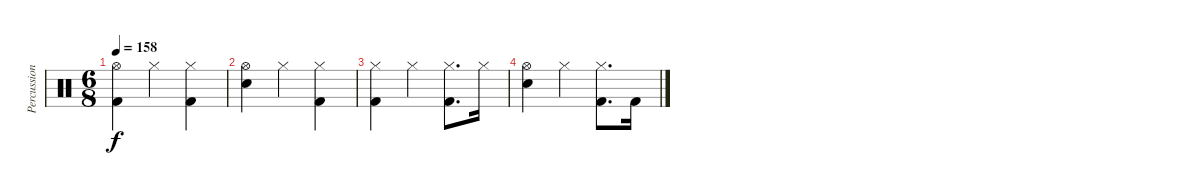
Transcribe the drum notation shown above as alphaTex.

\track ("Percussion" "Percussion") {instrument percussion}
\staff {score}
\articulation defaults
\ts (6 8)
\tempo 158
\clef neutral
\ks c
("Hi-Hat (open)" "Kick (hit) 2").4{dy f} "Hi-Hat (closed)".4 ("Hi-Hat (closed)" "Kick (hit) 2").4 |
("Hi-Hat (open)" "Snare (hit) 2").4 "Hi-Hat (closed)".4 ("Hi-Hat (closed)" "Kick (hit) 2").4 |
("Hi-Hat (closed)" "Kick (hit) 2").4 "Hi-Hat (closed)".4 ("Hi-Hat (closed)" "Kick (hit) 2").8{d} "Hi-Hat (closed)".16 |
("Hi-Hat (open)" "Snare (hit) 2").4 "Hi-Hat (closed)".4 ("Hi-Hat (closed)" "Kick (hit) 2").8{d} "Kick (hit) 2".16
